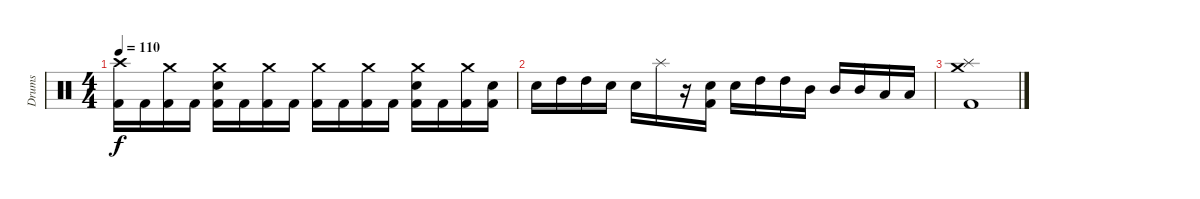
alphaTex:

\track ("Drums" "Drums") {instrument percussion}
\staff {score}
\articulation defaults
\ts (4 4)
\tempo 110
\clef neutral
\ks c
("Kick (hit) 2" "Crash high (hit)").16{dy f} "Kick (hit) 2".16 ("Kick (hit) 2" "Crash medium (hit)").16 "Kick (hit) 2".16 ("Kick (hit) 2" "Electric Snare (hit)" "Crash medium (hit)").16 "Kick (hit) 2".16 ("Kick (hit) 2" "Crash medium (hit)").16 "Kick (hit) 2".16 ("Kick (hit) 2" "Crash medium (hit)").16 "Kick (hit) 2".16 ("Kick (hit) 2" "Crash medium (hit)").16 "Kick (hit) 2".16 ("Kick (hit) 2" "Electric Snare (hit)" "Crash medium (hit)").16 "Kick (hit) 2".16 ("Kick (hit) 2" "Crash medium (hit)").16 ("Kick (hit) 2" "Electric Snare (hit)").16 |
"Electric Snare (hit)".16 "High Tom (hit)".16 "High Tom (hit)".16 "Electric Snare (hit)".16 "Electric Snare (hit)".16 "Splash (hit)".16 r.16 ("Kick (hit) 2" "Electric Snare (hit)").16 "Electric Snare (hit)".16 "High Tom (hit)".16 "High Tom (hit)".16 "Mid Tom (hit)".16 "Mid Tom (hit)".16 "Mid Tom (hit)".16 "Low Tom (hit)".16 "Low Tom (hit)".16 |
("Kick (hit) 2" "Crash medium (hit)" "Splash (hit)").1
